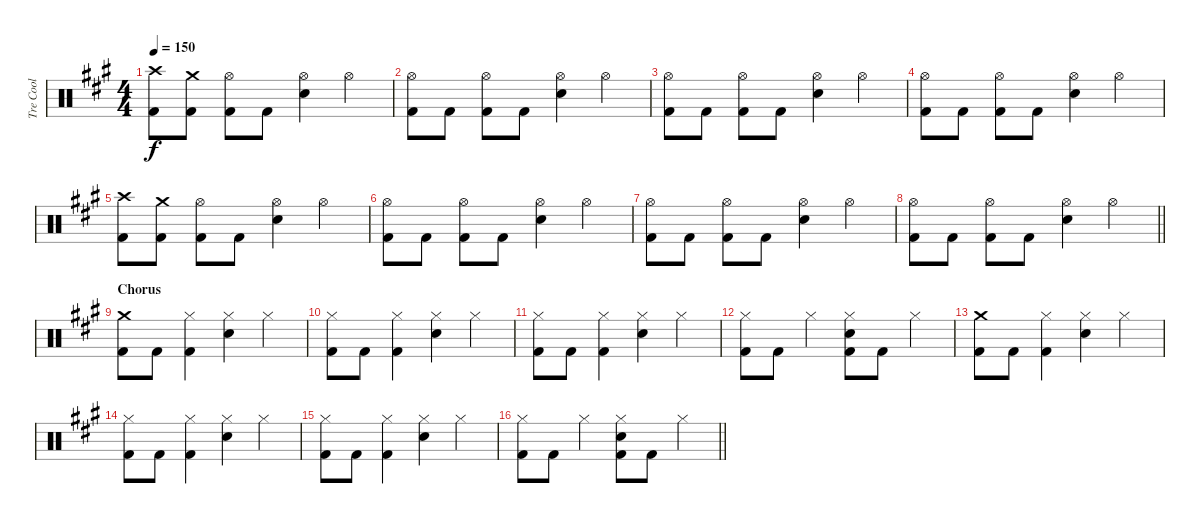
\track ("Tre Cool" "Tre Cool") {instrument percussion}
\staff {score}
\articulation defaults
\ts (4 4)
\tempo 150
\clef neutral
\ks a
("Crash high (hit)" "Kick (hit) 2").8{dy f} ("Crash medium (hit)" "Kick (hit) 2").8 ("Hi-Hat (open)" "Kick (hit) 2").8 "Kick (hit) 2".8 ("Hi-Hat (open)" "Snare (hit) 2").4 "Hi-Hat (open)".4 |
("Hi-Hat (open)" "Kick (hit) 2").8 "Kick (hit) 2".8 ("Hi-Hat (open)" "Kick (hit) 2").8 "Kick (hit) 2".8 ("Hi-Hat (open)" "Snare (hit) 2").4 "Hi-Hat (open)".4 |
("Hi-Hat (open)" "Kick (hit) 2").8 "Kick (hit) 2".8 ("Hi-Hat (open)" "Kick (hit) 2").8 "Kick (hit) 2".8 ("Hi-Hat (open)" "Snare (hit) 2").4 "Hi-Hat (open)".4 |
("Hi-Hat (open)" "Kick (hit) 2").8 "Kick (hit) 2".8 ("Hi-Hat (open)" "Kick (hit) 2").8 "Kick (hit) 2".8 ("Hi-Hat (open)" "Snare (hit) 2").4 "Hi-Hat (open)".4 |
("Crash high (hit)" "Kick (hit) 2").8 ("Crash medium (hit)" "Kick (hit) 2").8 ("Hi-Hat (open)" "Kick (hit) 2").8 "Kick (hit) 2".8 ("Hi-Hat (open)" "Snare (hit) 2").4 "Hi-Hat (open)".4 |
("Hi-Hat (open)" "Kick (hit) 2").8 "Kick (hit) 2".8 ("Hi-Hat (open)" "Kick (hit) 2").8 "Kick (hit) 2".8 ("Hi-Hat (open)" "Snare (hit) 2").4 "Hi-Hat (open)".4 |
("Hi-Hat (open)" "Kick (hit) 2").8 "Kick (hit) 2".8 ("Hi-Hat (open)" "Kick (hit) 2").8 "Kick (hit) 2".8 ("Hi-Hat (open)" "Snare (hit) 2").4 "Hi-Hat (open)".4 |
\barLineRight lightlight
("Hi-Hat (open)" "Kick (hit) 2").8 "Kick (hit) 2".8 ("Hi-Hat (open)" "Kick (hit) 2").8 "Kick (hit) 2".8 ("Hi-Hat (open)" "Snare (hit) 2").4 "Hi-Hat (open)".4 |
\section ("" "Chorus")
("Crash medium (hit)" "Kick (hit) 2").8 "Kick (hit) 2".8 ("Hi-Hat (closed)" "Kick (hit) 2").4 ("Hi-Hat (closed)" "Snare (hit) 2").4 "Hi-Hat (closed)".4 |
("Hi-Hat (closed)" "Kick (hit) 2").8 "Kick (hit) 2".8 ("Hi-Hat (closed)" "Kick (hit) 2").4 ("Hi-Hat (closed)" "Snare (hit) 2").4 "Hi-Hat (closed)".4 |
("Hi-Hat (closed)" "Kick (hit) 2").8 "Kick (hit) 2".8 ("Hi-Hat (closed)" "Kick (hit) 2").4 ("Hi-Hat (closed)" "Snare (hit) 2").4 "Hi-Hat (closed)".4 |
("Hi-Hat (closed)" "Kick (hit) 2").8 "Kick (hit) 2".8 "Hi-Hat (closed)".4 ("Hi-Hat (closed)" "Snare (hit) 2" "Kick (hit) 2").8 "Kick (hit) 2".8 "Hi-Hat (closed)".4 |
("Crash medium (hit)" "Kick (hit) 2").8 "Kick (hit) 2".8 ("Hi-Hat (closed)" "Kick (hit) 2").4 ("Hi-Hat (closed)" "Snare (hit) 2").4 "Hi-Hat (closed)".4 |
("Hi-Hat (closed)" "Kick (hit) 2").8 "Kick (hit) 2".8 ("Hi-Hat (closed)" "Kick (hit) 2").4 ("Hi-Hat (closed)" "Snare (hit) 2").4 "Hi-Hat (closed)".4 |
("Hi-Hat (closed)" "Kick (hit) 2").8 "Kick (hit) 2".8 ("Hi-Hat (closed)" "Kick (hit) 2").4 ("Hi-Hat (closed)" "Snare (hit) 2").4 "Hi-Hat (closed)".4 |
\barLineRight lightlight
("Hi-Hat (closed)" "Kick (hit) 2").8 "Kick (hit) 2".8 "Hi-Hat (closed)".4 ("Hi-Hat (closed)" "Snare (hit) 2" "Kick (hit) 2").8 "Kick (hit) 2".8 "Hi-Hat (closed)".4
